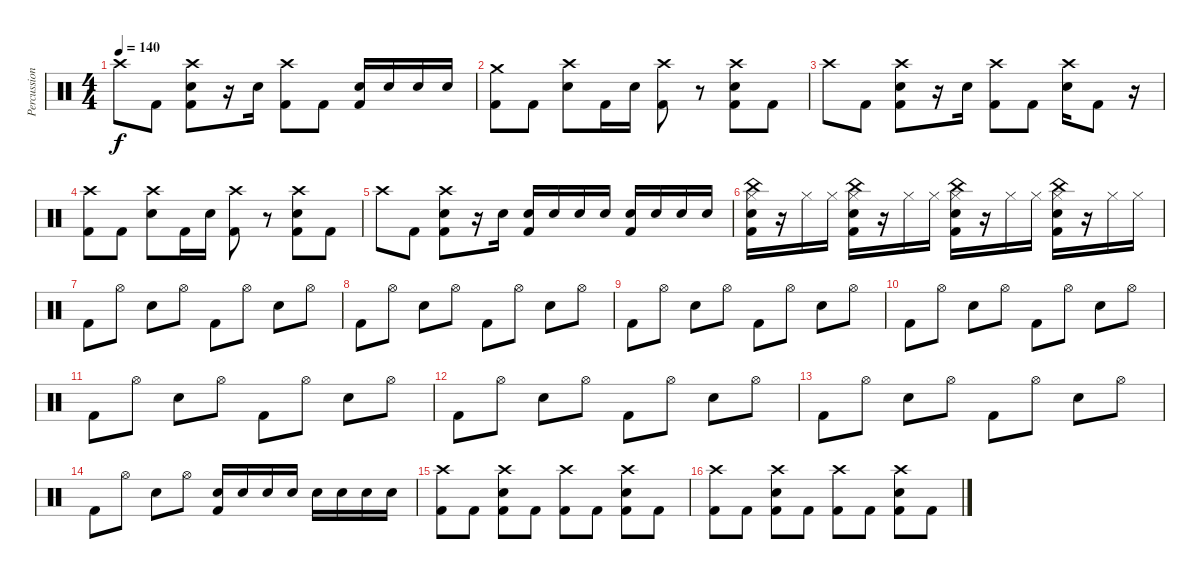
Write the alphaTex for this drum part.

\track ("Percussion" "Percussion") {instrument percussion}
\staff {score}
\articulation defaults
\ts (4 4)
\tempo 140
\clef neutral
\ks c "Crash high (hit)".8{dy f} "Kick (hit) 2".8
("Crash high (hit)" "Electric Snare (hit)" "Kick (hit) 2").8 r.16 "Electric Snare (hit)".16 ("Crash high (hit)" "Kick (hit) 2").8 "Kick (hit) 2".8 ("Electric Snare (hit)" "Kick (hit) 2").16 "Electric Snare (hit)".16 "Electric Snare (hit)".16 "Electric Snare (hit)".16 |
("Crash medium (hit)" "Kick (hit) 2").8 "Kick (hit) 2".8 ("Crash high (hit)" "Electric Snare (hit)").8 "Kick (hit) 2".16 "Electric Snare (hit)".16 ("Crash high (hit)" "Kick (hit) 2").8 r.8 ("Crash high (hit)" "Electric Snare (hit)" "Kick (hit) 2").8 "Kick (hit) 2".8 |
"Crash high (hit)".8 "Kick (hit) 2".8 ("Crash high (hit)" "Electric Snare (hit)" "Kick (hit) 2").8 r.16 "Electric Snare (hit)".16 ("Crash high (hit)" "Kick (hit) 2").8 "Kick (hit) 2".8 ("Crash high (hit)" "Electric Snare (hit)").16 "Kick (hit) 2".8 r.16 |
("Crash high (hit)" "Kick (hit) 2").8 "Kick (hit) 2".8 ("Crash high (hit)" "Electric Snare (hit)").8 "Kick (hit) 2".16 "Electric Snare (hit)".16 ("Crash high (hit)" "Kick (hit) 2").8 r.8 ("Crash high (hit)" "Electric Snare (hit)" "Kick (hit) 2").8 "Kick (hit) 2".8 |
"Crash high (hit)".8 "Kick (hit) 2".8 ("Crash high (hit)" "Electric Snare (hit)" "Kick (hit) 2").8 r.16 "Electric Snare (hit)".16 ("Electric Snare (hit)" "Kick (hit) 2").16 "Electric Snare (hit)".16 "Electric Snare (hit)".16 "Electric Snare (hit)".16 ("Electric Snare (hit)" "Kick (hit) 2").16 "Electric Snare (hit)".16 "Electric Snare (hit)".16 "Electric Snare (hit)".16 |
("China (hit)" "Hi-Hat (closed)" "Electric Snare (hit)" "Kick (hit) 2").16 r.16 "Hi-Hat (closed)".16 "Hi-Hat (closed)".16 ("China (hit)" "Hi-Hat (closed)" "Electric Snare (hit)" "Kick (hit) 2").16 r.16 "Hi-Hat (closed)".16 "Hi-Hat (closed)".16 ("China (hit)" "Hi-Hat (closed)" "Electric Snare (hit)" "Kick (hit) 2").16 r.16 "Hi-Hat (closed)".16 "Hi-Hat (closed)".16 ("China (hit)" "Hi-Hat (closed)" "Electric Snare (hit)" "Kick (hit) 2").16 r.16 "Hi-Hat (closed)".16 "Hi-Hat (closed)".16 |
"Kick (hit) 2".8 "Hi-Hat (open)".8 "Electric Snare (hit)".8 "Hi-Hat (open)".8 "Kick (hit) 2".8 "Hi-Hat (open)".8 "Electric Snare (hit)".8 "Hi-Hat (open)".8 |
"Kick (hit) 2".8 "Hi-Hat (open)".8 "Electric Snare (hit)".8 "Hi-Hat (open)".8 "Kick (hit) 2".8 "Hi-Hat (open)".8 "Electric Snare (hit)".8 "Hi-Hat (open)".8 |
"Kick (hit) 2".8 "Hi-Hat (open)".8 "Electric Snare (hit)".8 "Hi-Hat (open)".8 "Kick (hit) 2".8 "Hi-Hat (open)".8 "Electric Snare (hit)".8 "Hi-Hat (open)".8 |
"Kick (hit) 2".8 "Hi-Hat (open)".8 "Electric Snare (hit)".8 "Hi-Hat (open)".8 "Kick (hit) 2".8 "Hi-Hat (open)".8 "Electric Snare (hit)".8 "Hi-Hat (open)".8 |
"Kick (hit) 2".8 "Hi-Hat (open)".8 "Electric Snare (hit)".8 "Hi-Hat (open)".8 "Kick (hit) 2".8 "Hi-Hat (open)".8 "Electric Snare (hit)".8 "Hi-Hat (open)".8 |
"Kick (hit) 2".8 "Hi-Hat (open)".8 "Electric Snare (hit)".8 "Hi-Hat (open)".8 "Kick (hit) 2".8 "Hi-Hat (open)".8 "Electric Snare (hit)".8 "Hi-Hat (open)".8 |
"Kick (hit) 2".8 "Hi-Hat (open)".8 "Electric Snare (hit)".8 "Hi-Hat (open)".8 "Kick (hit) 2".8 "Hi-Hat (open)".8 "Electric Snare (hit)".8 "Hi-Hat (open)".8 |
"Kick (hit) 2".8 "Hi-Hat (open)".8 "Electric Snare (hit)".8 "Hi-Hat (open)".8 ("Electric Snare (hit)" "Kick (hit) 2").16 "Electric Snare (hit)".16 "Electric Snare (hit)".16 "Electric Snare (hit)".16 "Electric Snare (hit)".16 "Electric Snare (hit)".16 "Electric Snare (hit)".16 "Electric Snare (hit)".16 |
("Crash high (hit)" "Kick (hit) 2").8 "Kick (hit) 2".8 ("Crash high (hit)" "Electric Snare (hit)" "Kick (hit) 2").8 "Kick (hit) 2".8 ("Crash high (hit)" "Kick (hit) 2").8 "Kick (hit) 2".8 ("Crash high (hit)" "Electric Snare (hit)" "Kick (hit) 2").8 "Kick (hit) 2".8 |
("Crash high (hit)" "Kick (hit) 2").8 "Kick (hit) 2".8 ("Crash high (hit)" "Electric Snare (hit)" "Kick (hit) 2").8 "Kick (hit) 2".8 ("Crash high (hit)" "Kick (hit) 2").8 "Kick (hit) 2".8 ("Crash high (hit)" "Electric Snare (hit)" "Kick (hit) 2").8 "Kick (hit) 2".8
